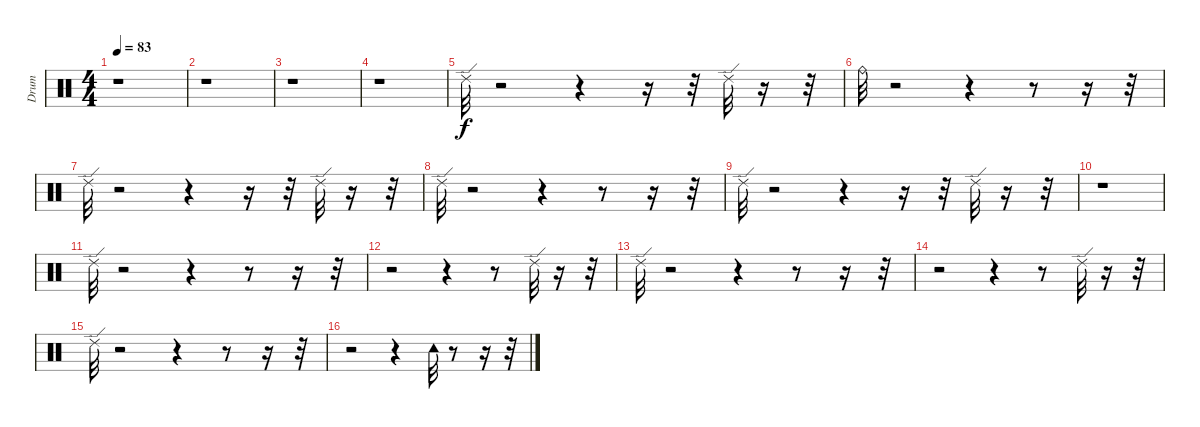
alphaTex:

\track ("Drum" "Drum") {instrument percussion}
\staff {score}
\articulation defaults
\ts (4 4)
\tempo 83
\clef neutral
\ks c
r.1{dy f} |
r.1 |
r.1 |
r.1 |
"Ride (edge) 2".32 r.2 r.4 r.16 r.32 "Ride (edge) 2".32 r.16 r.32 |
"Ride (bell)".32 r.2 r.4 r.8 r.16 r.32 |
"Ride (edge) 2".32 r.2 r.4 r.16 r.32 "Ride (edge) 2".32 r.16 r.32 |
"Ride (edge) 2".32 r.2 r.4 r.8 r.16 r.32 |
"Ride (edge) 2".32 r.2 r.4 r.16 r.32 "Ride (edge) 2".32 r.16 r.32 |
r.1 |
"Ride (edge) 2".32 r.2 r.4 r.8 r.16 r.32 |
r.2 r.4 r.8 "Ride (edge) 2".32 r.16 r.32 |
"Ride (edge) 2".32 r.2 r.4 r.8 r.16 r.32 |
r.2 r.4 r.8 "Ride (edge) 2".32 r.16 r.32 |
"Ride (edge) 2".32 r.2 r.4 r.8 r.16 r.32 |
r.2 r.4 "Tambourine (hit)".32 r.8 r.16 r.32
